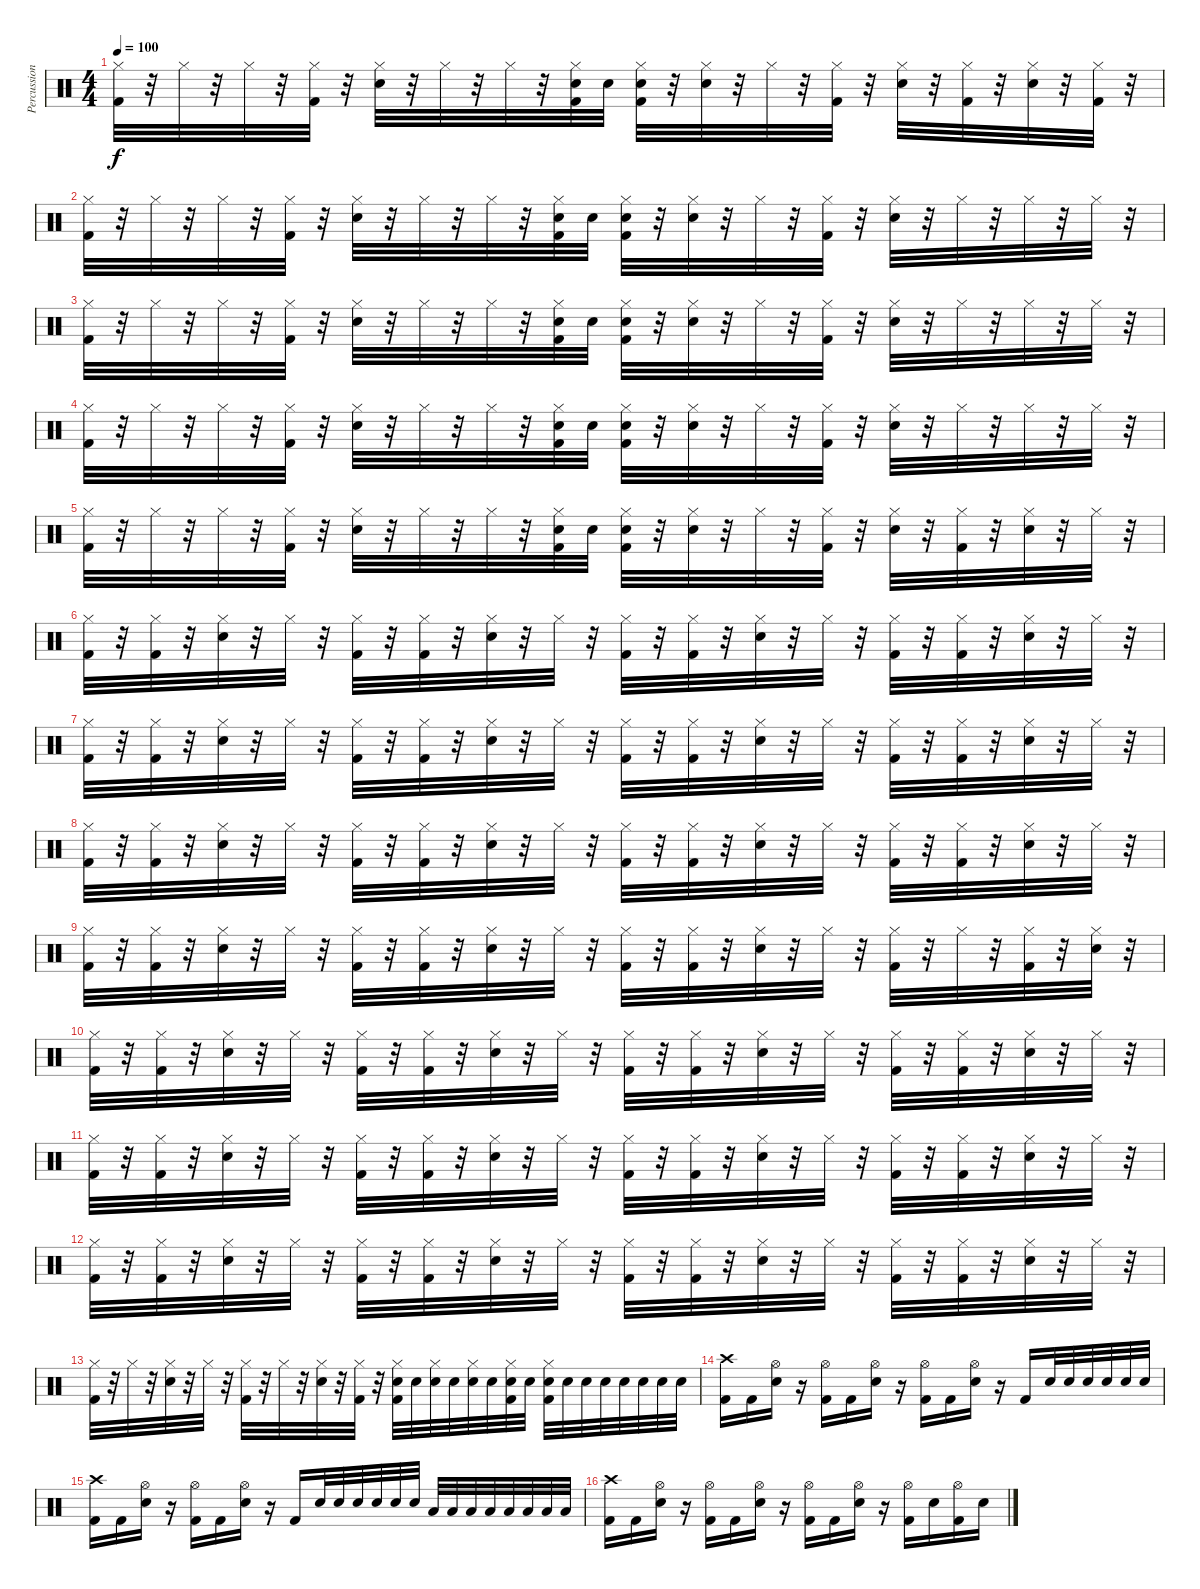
\track ("Percussion" "Percussion") {instrument percussion}
\staff {score}
\articulation defaults
\ts (4 4)
\tempo 100
\clef neutral
\ks c
("Hi-Hat (closed)" "Kick (hit) 2").32{dy f} r.32 "Hi-Hat (closed)".32 r.32 "Hi-Hat (closed)".32 r.32 ("Hi-Hat (closed)" "Kick (hit) 2").32 r.32 ("Hi-Hat (closed)" "Snare (hit) 2").32 r.32 "Hi-Hat (closed)".32 r.32 "Hi-Hat (closed)".32 r.32 ("Hi-Hat (closed)" "Snare (hit) 2" "Kick (hit) 2").32 "Snare (hit) 2".32 ("Hi-Hat (closed)" "Snare (hit) 2" "Kick (hit) 2").32 r.32 ("Hi-Hat (closed)" "Snare (hit) 2").32 r.32 "Hi-Hat (closed)".32 r.32 ("Hi-Hat (closed)" "Kick (hit) 2").32 r.32 ("Hi-Hat (closed)" "Snare (hit) 2").32 r.32 ("Hi-Hat (closed)" "Kick (hit) 2").32 r.32 ("Hi-Hat (closed)" "Snare (hit) 2").32 r.32 ("Hi-Hat (closed)" "Kick (hit) 2").32 r.32 |
("Hi-Hat (closed)" "Kick (hit) 2").32 r.32 "Hi-Hat (closed)".32 r.32 "Hi-Hat (closed)".32 r.32 ("Hi-Hat (closed)" "Kick (hit) 2").32 r.32 ("Hi-Hat (closed)" "Snare (hit) 2").32 r.32 "Hi-Hat (closed)".32 r.32 "Hi-Hat (closed)".32 r.32 ("Hi-Hat (closed)" "Snare (hit) 2" "Kick (hit) 2").32 "Snare (hit) 2".32 ("Hi-Hat (closed)" "Snare (hit) 2" "Kick (hit) 2").32 r.32 ("Hi-Hat (closed)" "Snare (hit) 2").32 r.32 "Hi-Hat (closed)".32 r.32 ("Hi-Hat (closed)" "Kick (hit) 2").32 r.32 ("Hi-Hat (closed)" "Snare (hit) 2").32 r.32 "Hi-Hat (closed)".32 r.32 "Hi-Hat (closed)".32 r.32 "Hi-Hat (closed)".32 r.32 |
("Hi-Hat (closed)" "Kick (hit) 2").32 r.32 "Hi-Hat (closed)".32 r.32 "Hi-Hat (closed)".32 r.32 ("Hi-Hat (closed)" "Kick (hit) 2").32 r.32 ("Hi-Hat (closed)" "Snare (hit) 2").32 r.32 "Hi-Hat (closed)".32 r.32 "Hi-Hat (closed)".32 r.32 ("Hi-Hat (closed)" "Snare (hit) 2" "Kick (hit) 2").32 "Snare (hit) 2".32 ("Hi-Hat (closed)" "Snare (hit) 2" "Kick (hit) 2").32 r.32 ("Hi-Hat (closed)" "Snare (hit) 2").32 r.32 "Hi-Hat (closed)".32 r.32 ("Hi-Hat (closed)" "Kick (hit) 2").32 r.32 ("Hi-Hat (closed)" "Snare (hit) 2").32 r.32 "Hi-Hat (closed)".32 r.32 "Hi-Hat (closed)".32 r.32 "Hi-Hat (closed)".32 r.32 |
("Hi-Hat (closed)" "Kick (hit) 2").32 r.32 "Hi-Hat (closed)".32 r.32 "Hi-Hat (closed)".32 r.32 ("Hi-Hat (closed)" "Kick (hit) 2").32 r.32 ("Hi-Hat (closed)" "Snare (hit) 2").32 r.32 "Hi-Hat (closed)".32 r.32 "Hi-Hat (closed)".32 r.32 ("Hi-Hat (closed)" "Snare (hit) 2" "Kick (hit) 2").32 "Snare (hit) 2".32 ("Hi-Hat (closed)" "Snare (hit) 2" "Kick (hit) 2").32 r.32 ("Hi-Hat (closed)" "Snare (hit) 2").32 r.32 "Hi-Hat (closed)".32 r.32 ("Hi-Hat (closed)" "Kick (hit) 2").32 r.32 ("Hi-Hat (closed)" "Snare (hit) 2").32 r.32 "Hi-Hat (closed)".32 r.32 "Hi-Hat (closed)".32 r.32 "Hi-Hat (closed)".32 r.32 |
("Hi-Hat (closed)" "Kick (hit) 2").32 r.32 "Hi-Hat (closed)".32 r.32 "Hi-Hat (closed)".32 r.32 ("Hi-Hat (closed)" "Kick (hit) 2").32 r.32 ("Hi-Hat (closed)" "Snare (hit) 2").32 r.32 "Hi-Hat (closed)".32 r.32 "Hi-Hat (closed)".32 r.32 ("Hi-Hat (closed)" "Snare (hit) 2" "Kick (hit) 2").32 "Snare (hit) 2".32 ("Hi-Hat (closed)" "Snare (hit) 2" "Kick (hit) 2").32 r.32 ("Hi-Hat (closed)" "Snare (hit) 2").32 r.32 "Hi-Hat (closed)".32 r.32 ("Hi-Hat (closed)" "Kick (hit) 2").32 r.32 ("Hi-Hat (closed)" "Snare (hit) 2").32 r.32 ("Hi-Hat (closed)" "Kick (hit) 2").32 r.32 ("Hi-Hat (closed)" "Snare (hit) 2").32 r.32 "Hi-Hat (closed)".32 r.32 |
("Hi-Hat (closed)" "Kick (hit) 2").32 r.32 ("Hi-Hat (closed)" "Kick (hit) 2").32 r.32 ("Hi-Hat (closed)" "Snare (hit) 2").32 r.32 "Hi-Hat (closed)".32 r.32 ("Hi-Hat (closed)" "Kick (hit) 2").32 r.32 ("Hi-Hat (closed)" "Kick (hit) 2").32 r.32 ("Hi-Hat (closed)" "Snare (hit) 2").32 r.32 "Hi-Hat (closed)".32 r.32 ("Hi-Hat (closed)" "Kick (hit) 2").32 r.32 ("Hi-Hat (closed)" "Kick (hit) 2").32 r.32 ("Hi-Hat (closed)" "Snare (hit) 2").32 r.32 "Hi-Hat (closed)".32 r.32 ("Hi-Hat (closed)" "Kick (hit) 2").32 r.32 ("Hi-Hat (closed)" "Kick (hit) 2").32 r.32 ("Hi-Hat (closed)" "Snare (hit) 2").32 r.32 "Hi-Hat (closed)".32 r.32 |
("Hi-Hat (closed)" "Kick (hit) 2").32 r.32 ("Hi-Hat (closed)" "Kick (hit) 2").32 r.32 ("Hi-Hat (closed)" "Snare (hit) 2").32 r.32 "Hi-Hat (closed)".32 r.32 ("Hi-Hat (closed)" "Kick (hit) 2").32 r.32 ("Hi-Hat (closed)" "Kick (hit) 2").32 r.32 ("Hi-Hat (closed)" "Snare (hit) 2").32 r.32 "Hi-Hat (closed)".32 r.32 ("Hi-Hat (closed)" "Kick (hit) 2").32 r.32 ("Hi-Hat (closed)" "Kick (hit) 2").32 r.32 ("Hi-Hat (closed)" "Snare (hit) 2").32 r.32 "Hi-Hat (closed)".32 r.32 ("Hi-Hat (closed)" "Kick (hit) 2").32 r.32 ("Hi-Hat (closed)" "Kick (hit) 2").32 r.32 ("Hi-Hat (closed)" "Snare (hit) 2").32 r.32 "Hi-Hat (closed)".32 r.32 |
("Hi-Hat (closed)" "Kick (hit) 2").32 r.32 ("Hi-Hat (closed)" "Kick (hit) 2").32 r.32 ("Hi-Hat (closed)" "Snare (hit) 2").32 r.32 "Hi-Hat (closed)".32 r.32 ("Hi-Hat (closed)" "Kick (hit) 2").32 r.32 ("Hi-Hat (closed)" "Kick (hit) 2").32 r.32 ("Hi-Hat (closed)" "Snare (hit) 2").32 r.32 "Hi-Hat (closed)".32 r.32 ("Hi-Hat (closed)" "Kick (hit) 2").32 r.32 ("Hi-Hat (closed)" "Kick (hit) 2").32 r.32 ("Hi-Hat (closed)" "Snare (hit) 2").32 r.32 "Hi-Hat (closed)".32 r.32 ("Hi-Hat (closed)" "Kick (hit) 2").32 r.32 ("Hi-Hat (closed)" "Kick (hit) 2").32 r.32 ("Hi-Hat (closed)" "Snare (hit) 2").32 r.32 "Hi-Hat (closed)".32 r.32 |
("Hi-Hat (closed)" "Kick (hit) 2").32 r.32 ("Hi-Hat (closed)" "Kick (hit) 2").32 r.32 ("Hi-Hat (closed)" "Snare (hit) 2").32 r.32 "Hi-Hat (closed)".32 r.32 ("Hi-Hat (closed)" "Kick (hit) 2").32 r.32 ("Hi-Hat (closed)" "Kick (hit) 2").32 r.32 ("Hi-Hat (closed)" "Snare (hit) 2").32 r.32 "Hi-Hat (closed)".32 r.32 ("Hi-Hat (closed)" "Kick (hit) 2").32 r.32 ("Hi-Hat (closed)" "Kick (hit) 2").32 r.32 ("Hi-Hat (closed)" "Snare (hit) 2").32 r.32 "Hi-Hat (closed)".32 r.32 ("Hi-Hat (closed)" "Kick (hit) 2").32 r.32 "Hi-Hat (closed)".32 r.32 ("Hi-Hat (closed)" "Kick (hit) 2").32 r.32 ("Hi-Hat (closed)" "Snare (hit) 2").32 r.32 |
("Hi-Hat (closed)" "Kick (hit) 2").32 r.32 ("Hi-Hat (closed)" "Kick (hit) 2").32 r.32 ("Hi-Hat (closed)" "Snare (hit) 2").32 r.32 "Hi-Hat (closed)".32 r.32 ("Hi-Hat (closed)" "Kick (hit) 2").32 r.32 ("Hi-Hat (closed)" "Kick (hit) 2").32 r.32 ("Hi-Hat (closed)" "Snare (hit) 2").32 r.32 "Hi-Hat (closed)".32 r.32 ("Hi-Hat (closed)" "Kick (hit) 2").32 r.32 ("Hi-Hat (closed)" "Kick (hit) 2").32 r.32 ("Hi-Hat (closed)" "Snare (hit) 2").32 r.32 "Hi-Hat (closed)".32 r.32 ("Hi-Hat (closed)" "Kick (hit) 2").32 r.32 ("Hi-Hat (closed)" "Kick (hit) 2").32 r.32 ("Hi-Hat (closed)" "Snare (hit) 2").32 r.32 "Hi-Hat (closed)".32 r.32 |
("Hi-Hat (closed)" "Kick (hit) 2").32 r.32 ("Hi-Hat (closed)" "Kick (hit) 2").32 r.32 ("Hi-Hat (closed)" "Snare (hit) 2").32 r.32 "Hi-Hat (closed)".32 r.32 ("Hi-Hat (closed)" "Kick (hit) 2").32 r.32 ("Hi-Hat (closed)" "Kick (hit) 2").32 r.32 ("Hi-Hat (closed)" "Snare (hit) 2").32 r.32 "Hi-Hat (closed)".32 r.32 ("Hi-Hat (closed)" "Kick (hit) 2").32 r.32 ("Hi-Hat (closed)" "Kick (hit) 2").32 r.32 ("Hi-Hat (closed)" "Snare (hit) 2").32 r.32 "Hi-Hat (closed)".32 r.32 ("Hi-Hat (closed)" "Kick (hit) 2").32 r.32 ("Hi-Hat (closed)" "Kick (hit) 2").32 r.32 ("Hi-Hat (closed)" "Snare (hit) 2").32 r.32 "Hi-Hat (closed)".32 r.32 |
("Hi-Hat (closed)" "Kick (hit) 2").32 r.32 ("Hi-Hat (closed)" "Kick (hit) 2").32 r.32 ("Hi-Hat (closed)" "Snare (hit) 2").32 r.32 "Hi-Hat (closed)".32 r.32 ("Hi-Hat (closed)" "Kick (hit) 2").32 r.32 ("Hi-Hat (closed)" "Kick (hit) 2").32 r.32 ("Hi-Hat (closed)" "Snare (hit) 2").32 r.32 "Hi-Hat (closed)".32 r.32 ("Hi-Hat (closed)" "Kick (hit) 2").32 r.32 ("Hi-Hat (closed)" "Kick (hit) 2").32 r.32 ("Hi-Hat (closed)" "Snare (hit) 2").32 r.32 "Hi-Hat (closed)".32 r.32 ("Hi-Hat (closed)" "Kick (hit) 2").32 r.32 ("Hi-Hat (closed)" "Kick (hit) 2").32 r.32 ("Hi-Hat (closed)" "Snare (hit) 2").32 r.32 "Hi-Hat (closed)".32 r.32 |
("Hi-Hat (closed)" "Kick (hit) 2").32 r.32 "Hi-Hat (closed)".32 r.32 ("Hi-Hat (closed)" "Snare (hit) 2").32 r.32 "Hi-Hat (closed)".32 r.32 ("Hi-Hat (closed)" "Kick (hit) 2").32 r.32 "Hi-Hat (closed)".32 r.32 ("Hi-Hat (closed)" "Snare (hit) 2").32 r.32 ("Hi-Hat (closed)" "Kick (hit) 2").32 r.32 ("Hi-Hat (closed)" "Snare (hit) 2" "Kick (hit) 2").32 "Snare (hit) 2".32 ("Hi-Hat (closed)" "Snare (hit) 2").32 "Snare (hit) 2".32 ("Hi-Hat (closed)" "Snare (hit) 2").32 "Snare (hit) 2".32 ("Hi-Hat (closed)" "Snare (hit) 2" "Kick (hit) 2").32 "Snare (hit) 2".32 ("Hi-Hat (closed)" "Snare (hit) 2" "Kick (hit) 2").32 "Snare (hit) 2".32 "Snare (hit) 2".32 "Snare (hit) 2".32 "Snare (hit) 2".32 "Snare (hit) 2".32 "Snare (hit) 2".32 "Snare (hit) 2".32 |
("Crash high (hit)" "Kick (hit) 2").16 "Kick (hit) 2".16 ("Hi-Hat (open)" "Snare (hit) 2").16 r.16 ("Hi-Hat (open)" "Kick (hit) 2").16 "Kick (hit) 2".16 ("Hi-Hat (open)" "Snare (hit) 2").16 r.16 ("Hi-Hat (open)" "Kick (hit) 2").16 "Kick (hit) 2".16 ("Hi-Hat (open)" "Snare (hit) 2").16 r.16 "Kick (hit) 2".16 "Snare (hit) 2".32 "Snare (hit) 2".32 "Snare (hit) 2".32 "Snare (hit) 2".32 "Snare (hit) 2".32 "Snare (hit) 2".32 |
("Crash high (hit)" "Kick (hit) 2").16 "Kick (hit) 2".16 ("Hi-Hat (open)" "Snare (hit) 2").16 r.16 ("Hi-Hat (open)" "Kick (hit) 2").16 "Kick (hit) 2".16 ("Hi-Hat (open)" "Snare (hit) 2").16 r.16 "Kick (hit) 2".16 "Snare (hit) 2".32 "Snare (hit) 2".32 "Snare (hit) 2".32 "Snare (hit) 2".32 "Snare (hit) 2".32 "Snare (hit) 2".32 "Low Tom (hit)".32 "Low Tom (hit)".32 "Low Tom (hit)".32 "Low Tom (hit)".32 "Low Floor Tom (hit)".32 "Low Floor Tom (hit)".32 "Low Floor Tom (hit)".32 "Low Floor Tom (hit)".32 |
("Crash high (hit)" "Kick (hit) 2").16 "Kick (hit) 2".16 ("Hi-Hat (open)" "Snare (hit) 2").16 r.16 ("Hi-Hat (open)" "Kick (hit) 2").16 "Kick (hit) 2".16 ("Hi-Hat (open)" "Snare (hit) 2").16 r.16 ("Hi-Hat (open)" "Kick (hit) 2").16 "Kick (hit) 2".16 ("Hi-Hat (open)" "Snare (hit) 2").16 r.16 ("Hi-Hat (open)" "Kick (hit) 2").16 "Snare (hit) 2".16 ("Hi-Hat (open)" "Kick (hit) 2").16 "Snare (hit) 2".16
